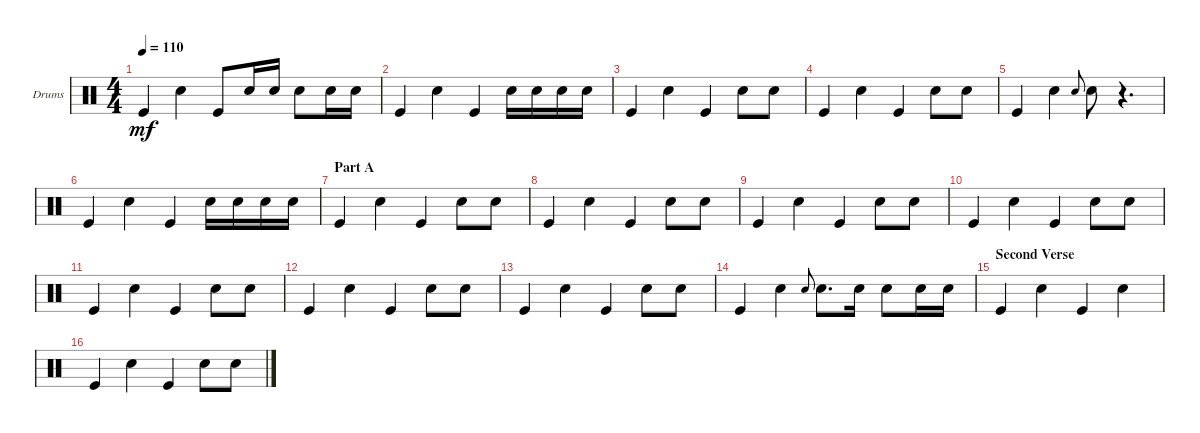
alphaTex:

\defaultSystemsLayout 4
\bracketExtendMode groupsimilarinstruments
\firstSystemTrackNameOrientation horizontal
\otherSystemsTrackNameOrientation horizontal
\track ("Drumkit" "Drums") {instrument percussion}
\staff {score}
\articulation defaults
\ts (4 4)
\tempo 110
\clef neutral
\ks c "Kick (hit)".4{dy mf} "Snare (hit) 2".4 "Kick (hit)".8 "Snare (hit) 2".16 "Snare (hit) 2".16 "Snare (hit) 2".8 "Snare (hit) 2".16 "Snare (hit) 2".16
|
"Kick (hit)".4 "Snare (hit) 2".4 "Kick (hit)".4 "Snare (hit) 2".16 "Snare (hit) 2".16 "Snare (hit) 2".16 "Snare (hit) 2".16 |
"Kick (hit)".4 "Snare (hit) 2".4 "Kick (hit)".4 "Snare (hit) 2".8 "Snare (hit) 2".8 |
"Kick (hit)".4 "Snare (hit) 2".4 "Kick (hit)".4 "Snare (hit) 2".8 "Snare (hit) 2".8 |
"Kick (hit)".4 "Snare (hit) 2".4 "Snare (hit) 2".8{gr onbeat} "Snare (hit) 2".8 r.4{d} |
"Kick (hit)".4 "Snare (hit) 2".4 "Kick (hit)".4 "Snare (hit) 2".16 "Snare (hit) 2".16 "Snare (hit) 2".16 "Snare (hit) 2".16 |
\section ("" "Part A")
"Kick (hit)".4 "Snare (hit) 2".4 "Kick (hit)".4 "Snare (hit) 2".8 "Snare (hit) 2".8 |
"Kick (hit)".4 "Snare (hit) 2".4 "Kick (hit)".4 "Snare (hit) 2".8 "Snare (hit) 2".8 |
"Kick (hit)".4 "Snare (hit) 2".4 "Kick (hit)".4 "Snare (hit) 2".8 "Snare (hit) 2".8 |
"Kick (hit)".4 "Snare (hit) 2".4 "Kick (hit)".4 "Snare (hit) 2".8 "Snare (hit) 2".8 |
"Kick (hit)".4 "Snare (hit) 2".4 "Kick (hit)".4 "Snare (hit) 2".8 "Snare (hit) 2".8 |
"Kick (hit)".4 "Snare (hit) 2".4 "Kick (hit)".4 "Snare (hit) 2".8 "Snare (hit) 2".8 |
"Kick (hit)".4 "Snare (hit) 2".4 "Kick (hit)".4 "Snare (hit) 2".8 "Snare (hit) 2".8 |
"Kick (hit)".4 "Snare (hit) 2".4 "Snare (hit) 2".8{gr onbeat} "Snare (hit) 2".8{d} "Snare (hit) 2".16 "Snare (hit) 2".8 "Snare (hit) 2".16 "Snare (hit) 2".16 |
\section ("" "Second Verse")
"Kick (hit)".4 "Snare (hit) 2".4 "Kick (hit)".4 "Snare (hit) 2".4 |
"Kick (hit)".4 "Snare (hit) 2".4 "Kick (hit)".4 "Snare (hit) 2".8 "Snare (hit) 2".8
